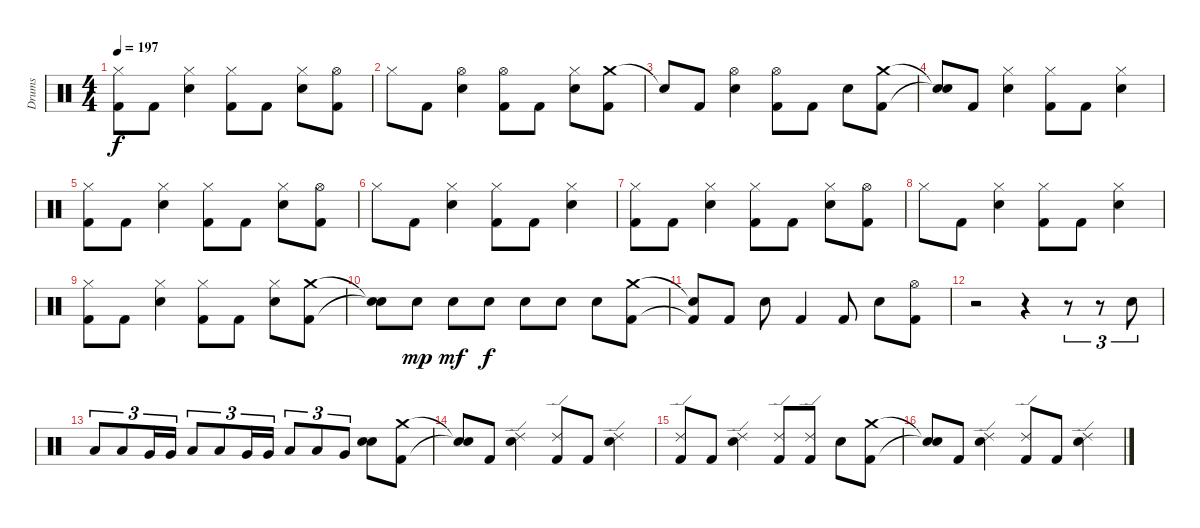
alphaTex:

\track ("Drums" "Drums") {instrument percussion}
\staff {score}
\articulation defaults
\ts (4 4)
\tempo 197
\clef neutral
\ks c
("Hi-Hat (closed)" "Kick (hit) 2").8{dy f} "Kick (hit) 2".8 ("Hi-Hat (closed)" "Electric Snare (hit)").4 ("Hi-Hat (closed)" "Kick (hit) 2").8 "Kick (hit) 2".8 ("Hi-Hat (closed)" "Electric Snare (hit)").8 ("Hi-Hat (open)" "Kick (hit) 2").8 |
"Hi-Hat (closed)".8 "Kick (hit) 2".8 ("Hi-Hat (open)" "Electric Snare (hit)").4 ("Hi-Hat (open)" "Kick (hit) 2").8 "Kick (hit) 2".8 ("Hi-Hat (closed)" "Electric Snare (hit)").8 ("Crash medium (hit)" "Kick (hit) 2").8 |
"Snare (hit)"{t}.8 "Kick (hit) 2".8 ("Hi-Hat (open)" "Electric Snare (hit)").4 ("Hi-Hat (open)" "Kick (hit) 2").8 "Kick (hit) 2".8 "Electric Snare (hit)".8 ("Crash medium (hit)" "Kick (hit) 2").8 |
\section ("" "")
("Snare (hit)"{t} "Snare (hit)"{t}).8 "Kick (hit) 2".8 ("Hi-Hat (closed)" "Electric Snare (hit)").4 ("Hi-Hat (closed)" "Kick (hit) 2").8 "Kick (hit) 2".8 ("Hi-Hat (closed)" "Electric Snare (hit)").4 |
("Hi-Hat (closed)" "Kick (hit) 2").8 "Kick (hit) 2".8 ("Hi-Hat (closed)" "Electric Snare (hit)").4 ("Hi-Hat (closed)" "Kick (hit) 2").8 "Kick (hit) 2".8 ("Hi-Hat (closed)" "Electric Snare (hit)").8 ("Hi-Hat (open)" "Kick (hit) 2").8 |
"Hi-Hat (closed)".8 "Kick (hit) 2".8 ("Hi-Hat (closed)" "Electric Snare (hit)").4 ("Hi-Hat (closed)" "Kick (hit) 2").8 "Kick (hit) 2".8 ("Hi-Hat (closed)" "Electric Snare (hit)").4 |
("Hi-Hat (closed)" "Kick (hit) 2").8 "Kick (hit) 2".8 ("Hi-Hat (closed)" "Electric Snare (hit)").4 ("Hi-Hat (closed)" "Kick (hit) 2").8 "Kick (hit) 2".8 ("Hi-Hat (closed)" "Electric Snare (hit)").8 ("Hi-Hat (open)" "Kick (hit) 2").8 |
"Hi-Hat (closed)".8 "Kick (hit) 2".8 ("Hi-Hat (closed)" "Electric Snare (hit)").4 ("Hi-Hat (closed)" "Kick (hit) 2").8 "Kick (hit) 2".8 ("Hi-Hat (closed)" "Electric Snare (hit)").4 |
("Hi-Hat (closed)" "Kick (hit) 2").8 "Kick (hit) 2".8 ("Hi-Hat (closed)" "Electric Snare (hit)").4 ("Hi-Hat (closed)" "Kick (hit) 2").8 "Kick (hit) 2".8 ("Hi-Hat (closed)" "Electric Snare (hit)").8 ("Crash medium (hit)" "Kick (hit) 2").8 |
("Snare (hit)"{t} "Snare (hit)"{t}).8 "Electric Snare (hit)".8{dy mp} "Electric Snare (hit)".8{dy mf} "Electric Snare (hit)".8{dy f} "Electric Snare (hit)".8 "Electric Snare (hit)".8 "Electric Snare (hit)".8 ("Crash medium (hit)" "Kick (hit) 2").8 |
("Snare (hit)"{t} "Kick (hit) 2"{t}).8 "Kick (hit) 2".8 "Electric Snare (hit)".8 "Kick (hit) 2".4 "Kick (hit) 2".8 "Electric Snare (hit)".8 ("Hi-Hat (open)" "Kick (hit) 2").8 |
\section ("" "")
r.2 r.4 r.8{tu (3 2)} r.8{tu (3 2)} "Electric Snare (hit)".8{tu (3 2)} |
"Low Tom (hit)".8{tu (3 2)} "Low Floor Tom (hit)".8{tu (3 2)} "Very Low Tom (hit)".16{tu (3 2)} "Very Low Tom (hit)".16{tu (3 2)} "Low Tom (hit)".8{tu (3 2)} "Low Floor Tom (hit)".8{tu (3 2)} "Very Low Tom (hit)".16{tu (3 2)} "Very Low Tom (hit)".16{tu (3 2)} "Low Tom (hit)".8{tu (3 2)} "Low Floor Tom (hit)".8{tu (3 2)} "Very Low Tom (hit)".8{tu (3 2)} ("Electric Snare (hit)" "Electric Snare (hit)").8 ("Crash medium (hit)" "Kick (hit) 2").8 |
\section ("" "")
("Snare (hit)"{t} "Snare (hit)"{t}).8 "Kick (hit) 2".8 ("Ride (edge) 2" "Electric Snare (hit)").4 ("Ride (edge) 2" "Kick (hit) 2").8 "Kick (hit) 2".8 ("Ride (edge) 2" "Electric Snare (hit)").4 |
("Ride (edge) 2" "Kick (hit) 2").8 "Kick (hit) 2".8 ("Ride (edge) 2" "Electric Snare (hit)").4 ("Ride (edge) 2" "Kick (hit) 2").8 ("Ride (edge) 2" "Kick (hit) 2").8 "Electric Snare (hit)".8 ("Crash medium (hit)" "Kick (hit) 2").8 |
("Snare (hit)"{t} "Snare (hit)"{t}).8 "Kick (hit) 2".8 ("Ride (edge) 2" "Electric Snare (hit)").4 ("Ride (edge) 2" "Kick (hit) 2").8 "Kick (hit) 2".8 ("Ride (edge) 2" "Electric Snare (hit)").4
